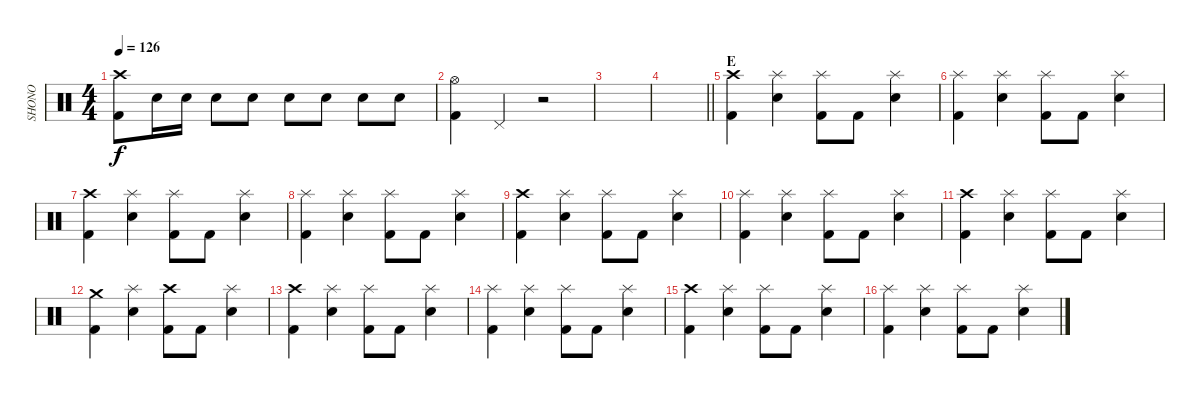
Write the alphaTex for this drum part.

\track ("SHONO" "SHONO") {instrument percussion}
\staff {score}
\articulation defaults
\ts (4 4)
\tempo 126
\clef neutral
\ks c
("Crash high (hit)" "Kick (hit) 2").8{dy f} "Snare (hit) 2".16 "Snare (hit) 2".16 "Snare (hit) 2".8 "Snare (hit) 2".8 "Snare (hit) 2".8 "Snare (hit) 2".8 "Snare (hit) 2".8 "Snare (hit) 2".8 |
("Hi-Hat (open)" "Kick (hit) 2").4 "Pedal Hi-Hat (hit)".4 r.2 |
|
\barLineRight lightlight
|
\section ("" "E ")
("Crash high (hit)" "Kick (hit) 2").4 ("Splash (hit)" "Snare (hit) 2").4 ("Splash (hit)" "Kick (hit) 2").8 "Kick (hit) 2".8 ("Splash (hit)" "Snare (hit) 2").4 |
("Splash (hit)" "Kick (hit) 2").4 ("Splash (hit)" "Snare (hit) 2").4 ("Splash (hit)" "Kick (hit) 2").8 "Kick (hit) 2".8 ("Splash (hit)" "Snare (hit) 2").4 |
("Crash high (hit)" "Kick (hit) 2").4 ("Splash (hit)" "Snare (hit) 2").4 ("Splash (hit)" "Kick (hit) 2").8 "Kick (hit) 2".8 ("Splash (hit)" "Snare (hit) 2").4 |
("Splash (hit)" "Kick (hit) 2").4 ("Splash (hit)" "Snare (hit) 2").4 ("Splash (hit)" "Kick (hit) 2").8 "Kick (hit) 2".8 ("Splash (hit)" "Snare (hit) 2").4 |
("Crash high (hit)" "Kick (hit) 2").4 ("Splash (hit)" "Snare (hit) 2").4 ("Splash (hit)" "Kick (hit) 2").8 "Kick (hit) 2".8 ("Splash (hit)" "Snare (hit) 2").4 |
("Splash (hit)" "Kick (hit) 2").4 ("Splash (hit)" "Snare (hit) 2").4 ("Splash (hit)" "Kick (hit) 2").8 "Kick (hit) 2".8 ("Splash (hit)" "Snare (hit) 2").4 |
("Crash high (hit)" "Kick (hit) 2").4 ("Splash (hit)" "Snare (hit) 2").4 ("Splash (hit)" "Kick (hit) 2").8 "Kick (hit) 2".8 ("Splash (hit)" "Snare (hit) 2").4 |
("Crash medium (hit)" "Kick (hit) 2").4 ("Splash (hit)" "Snare (hit) 2").4 ("Crash high (hit)" "Kick (hit) 2").8 "Kick (hit) 2".8 ("Splash (hit)" "Snare (hit) 2").4 |
("Crash high (hit)" "Kick (hit) 2").4 ("Splash (hit)" "Snare (hit) 2").4 ("Splash (hit)" "Kick (hit) 2").8 "Kick (hit) 2".8 ("Splash (hit)" "Snare (hit) 2").4 |
("Splash (hit)" "Kick (hit) 2").4 ("Splash (hit)" "Snare (hit) 2").4 ("Splash (hit)" "Kick (hit) 2").8 "Kick (hit) 2".8 ("Splash (hit)" "Snare (hit) 2").4 |
("Crash high (hit)" "Kick (hit) 2").4 ("Splash (hit)" "Snare (hit) 2").4 ("Splash (hit)" "Kick (hit) 2").8 "Kick (hit) 2".8 ("Splash (hit)" "Snare (hit) 2").4 |
("Splash (hit)" "Kick (hit) 2").4 ("Splash (hit)" "Snare (hit) 2").4 ("Splash (hit)" "Kick (hit) 2").8 "Kick (hit) 2".8 ("Splash (hit)" "Snare (hit) 2").4
